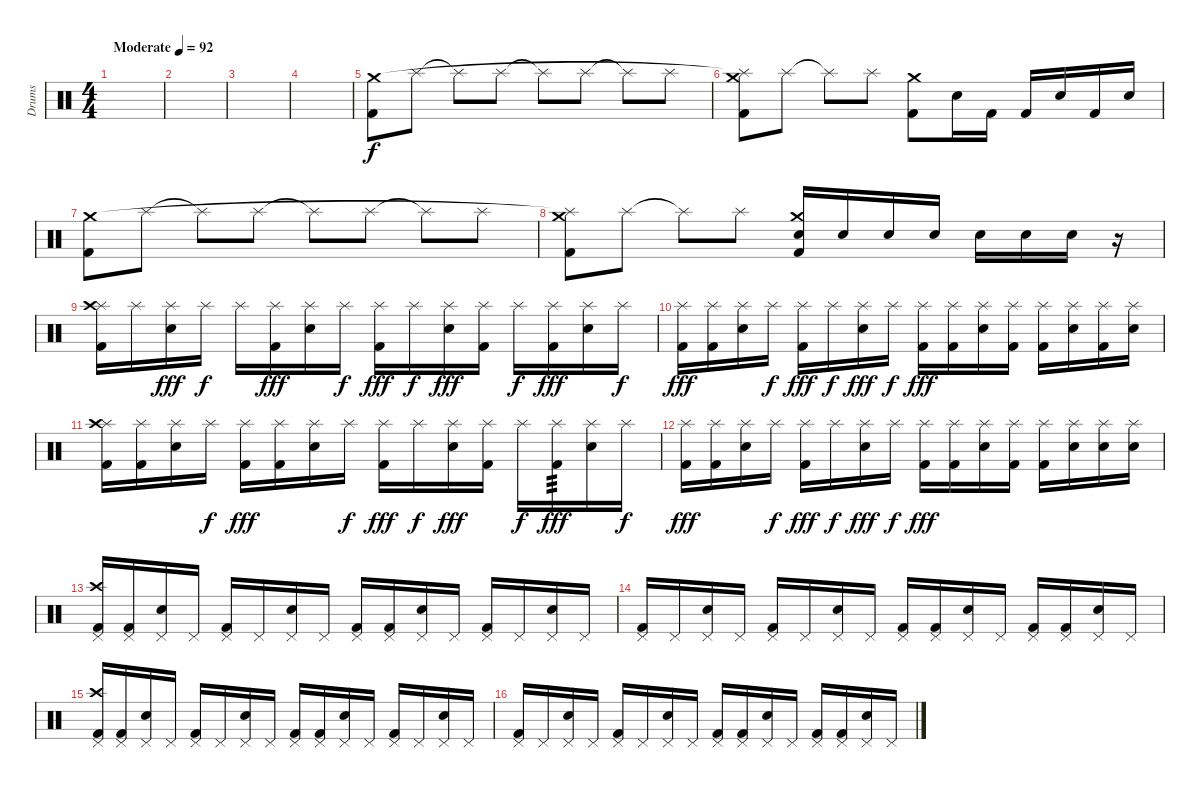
\track ("Drums" "Drums") {instrument percussion}
\staff {score}
\articulation defaults
\ts (4 4)
\tempo (92 "Moderate")
\clef neutral
\ks c
|
|
|
|
("Kick (hit) 2" "Crash medium (hit)").8 "Splash (hit)".8 "Splash (hit)"{t}.8 "Splash (hit)".8 "Splash (hit)"{t}.8 "Splash (hit)".8 "Splash (hit)"{t}.8 "Splash (hit)".8 |
("Kick (hit) 2" "Splash (hit)"{t} "Crash medium (hit)").8 "Splash (hit)".8 "Splash (hit)"{t}.8 "Splash (hit)".8 ("Kick (hit) 2" "Crash medium (hit)").8 "Electric Snare (hit)".16 "Kick (hit) 2".16 "Kick (hit) 2".16 "Electric Snare (hit)".16 "Kick (hit) 2".16 "Electric Snare (hit)".16 |
("Kick (hit) 2" "Crash medium (hit)").8 "Splash (hit)".8 "Splash (hit)"{t}.8 "Splash (hit)".8 "Splash (hit)"{t}.8 "Splash (hit)".8 "Splash (hit)"{t}.8 "Splash (hit)".8 |
("Kick (hit) 2" "Splash (hit)"{t} "Crash medium (hit)").8 "Splash (hit)".8 "Splash (hit)"{t}.8 "Splash (hit)".8 ("Kick (hit) 2" "Electric Snare (hit)" "Crash medium (hit)").16 "Electric Snare (hit)".16 "Electric Snare (hit)".16 "Electric Snare (hit)".16 "Electric Snare (hit)".16 "Electric Snare (hit)".16 "Electric Snare (hit)".16 r.16 |
("Kick (hit) 2" "Splash (hit)" "Crash high (hit)").16 "Splash (hit)".16{dy f} ("Electric Snare (hit)" "Splash (hit)").16{dy fff} "Splash (hit)".16{dy f} "Splash (hit)".16 ("Kick (hit) 2" "Splash (hit)").16{dy fff} ("Electric Snare (hit)" "Splash (hit)").16 "Splash (hit)".16{dy f} ("Kick (hit) 2" "Splash (hit)").16{dy fff} "Splash (hit)".16{dy f} ("Electric Snare (hit)" "Splash (hit)").16{dy fff} ("Kick (hit) 2" "Splash (hit)").16 "Splash (hit)".16{dy f} ("Kick (hit) 2" "Splash (hit)").16{dy fff} ("Electric Snare (hit)" "Splash (hit)").16 "Splash (hit)".16{dy f} |
("Kick (hit) 2" "Splash (hit)").16{dy fff} ("Kick (hit) 2" "Splash (hit)").16 ("Electric Snare (hit)" "Splash (hit)").16 "Splash (hit)".16{dy f} ("Kick (hit) 2" "Splash (hit)").16{dy fff} "Splash (hit)".16{dy f} ("Electric Snare (hit)" "Splash (hit)").16{dy fff} "Splash (hit)".16{dy f} ("Kick (hit) 2" "Splash (hit)").16{dy fff} ("Kick (hit) 2" "Splash (hit)").16 ("Electric Snare (hit)" "Splash (hit)").16 ("Kick (hit) 2" "Splash (hit)").16 ("Kick (hit) 2" "Splash (hit)").16 ("Electric Snare (hit)" "Splash (hit)").16 ("Kick (hit) 2" "Splash (hit)").16 ("Electric Snare (hit)" "Splash (hit)").16 |
("Kick (hit) 2" "Splash (hit)" "Crash high (hit)").16 ("Kick (hit) 2" "Splash (hit)").16 ("Electric Snare (hit)" "Splash (hit)").16 "Splash (hit)".16{dy f} ("Kick (hit) 2" "Splash (hit)").16{dy fff} ("Kick (hit) 2" "Splash (hit)").16 ("Electric Snare (hit)" "Splash (hit)").16 "Splash (hit)".16{dy f} ("Kick (hit) 2" "Splash (hit)").16{dy fff} "Splash (hit)".16{dy f} ("Electric Snare (hit)" "Splash (hit)").16{dy fff} ("Kick (hit) 2" "Splash (hit)").16 "Splash (hit)".16{dy f} ("Kick (hit) 2" "Splash (hit)").16{tp 3 dy fff} ("Electric Snare (hit)" "Splash (hit)").16 "Splash (hit)".16{dy f} |
("Kick (hit) 2" "Splash (hit)").16{dy fff} ("Kick (hit) 2" "Splash (hit)").16 ("Electric Snare (hit)" "Splash (hit)").16 "Splash (hit)".16{dy f} ("Kick (hit) 2" "Splash (hit)").16{dy fff} "Splash (hit)".16{dy f} ("Electric Snare (hit)" "Splash (hit)").16{dy fff} "Splash (hit)".16{dy f} ("Kick (hit) 2" "Splash (hit)").16{dy fff} ("Kick (hit) 2" "Splash (hit)").16 ("Electric Snare (hit)" "Splash (hit)").16 ("Kick (hit) 2" "Splash (hit)").16 ("Kick (hit) 2" "Splash (hit)").16 ("Electric Snare (hit)" "Splash (hit)").16 ("Electric Snare (hit)" "Splash (hit)").16 ("Electric Snare (hit)" "Splash (hit)").16 |
("Kick (hit) 2" "Pedal Hi-Hat (hit)" "Crash high (hit)").16 ("Kick (hit) 2" "Pedal Hi-Hat (hit)").16 ("Electric Snare (hit)" "Pedal Hi-Hat (hit)").16 "Pedal Hi-Hat (hit)".16 ("Kick (hit) 2" "Pedal Hi-Hat (hit)").16 "Pedal Hi-Hat (hit)".16 ("Electric Snare (hit)" "Pedal Hi-Hat (hit)").16 "Pedal Hi-Hat (hit)".16 ("Kick (hit) 2" "Pedal Hi-Hat (hit)").16 ("Kick (hit) 2" "Pedal Hi-Hat (hit)").16 ("Electric Snare (hit)" "Pedal Hi-Hat (hit)").16 "Pedal Hi-Hat (hit)".16 ("Kick (hit) 2" "Pedal Hi-Hat (hit)").16 "Pedal Hi-Hat (hit)".16 ("Electric Snare (hit)" "Pedal Hi-Hat (hit)").16 "Pedal Hi-Hat (hit)".16 |
("Kick (hit) 2" "Pedal Hi-Hat (hit)").16 "Pedal Hi-Hat (hit)".16 ("Electric Snare (hit)" "Pedal Hi-Hat (hit)").16 "Pedal Hi-Hat (hit)".16 ("Kick (hit) 2" "Pedal Hi-Hat (hit)").16 "Pedal Hi-Hat (hit)".16 ("Electric Snare (hit)" "Pedal Hi-Hat (hit)").16 "Pedal Hi-Hat (hit)".16 ("Kick (hit) 2" "Pedal Hi-Hat (hit)").16 ("Kick (hit) 2" "Pedal Hi-Hat (hit)").16 ("Electric Snare (hit)" "Pedal Hi-Hat (hit)").16 "Pedal Hi-Hat (hit)".16 ("Kick (hit) 2" "Pedal Hi-Hat (hit)").16 ("Kick (hit) 2" "Pedal Hi-Hat (hit)").16 ("Electric Snare (hit)" "Pedal Hi-Hat (hit)").16 "Pedal Hi-Hat (hit)".16 |
("Kick (hit) 2" "Pedal Hi-Hat (hit)" "Crash high (hit)").16 ("Kick (hit) 2" "Pedal Hi-Hat (hit)").16 ("Electric Snare (hit)" "Pedal Hi-Hat (hit)").16 "Pedal Hi-Hat (hit)".16 ("Kick (hit) 2" "Pedal Hi-Hat (hit)").16 "Pedal Hi-Hat (hit)".16 ("Electric Snare (hit)" "Pedal Hi-Hat (hit)").16 "Pedal Hi-Hat (hit)".16 ("Kick (hit) 2" "Pedal Hi-Hat (hit)").16 ("Kick (hit) 2" "Pedal Hi-Hat (hit)").16 ("Electric Snare (hit)" "Pedal Hi-Hat (hit)").16 "Pedal Hi-Hat (hit)".16 ("Kick (hit) 2" "Pedal Hi-Hat (hit)").16 "Pedal Hi-Hat (hit)".16 ("Electric Snare (hit)" "Pedal Hi-Hat (hit)").16 "Pedal Hi-Hat (hit)".16 |
("Kick (hit) 2" "Pedal Hi-Hat (hit)").16 "Pedal Hi-Hat (hit)".16 ("Electric Snare (hit)" "Pedal Hi-Hat (hit)").16 "Pedal Hi-Hat (hit)".16 ("Kick (hit) 2" "Pedal Hi-Hat (hit)").16 "Pedal Hi-Hat (hit)".16 ("Electric Snare (hit)" "Pedal Hi-Hat (hit)").16 "Pedal Hi-Hat (hit)".16 ("Kick (hit) 2" "Pedal Hi-Hat (hit)").16 ("Kick (hit) 2" "Pedal Hi-Hat (hit)").16 ("Electric Snare (hit)" "Pedal Hi-Hat (hit)").16 "Pedal Hi-Hat (hit)".16 ("Kick (hit) 2" "Pedal Hi-Hat (hit)").16 ("Kick (hit) 2" "Pedal Hi-Hat (hit)").16 ("Electric Snare (hit)" "Pedal Hi-Hat (hit)").16 "Pedal Hi-Hat (hit)".16
